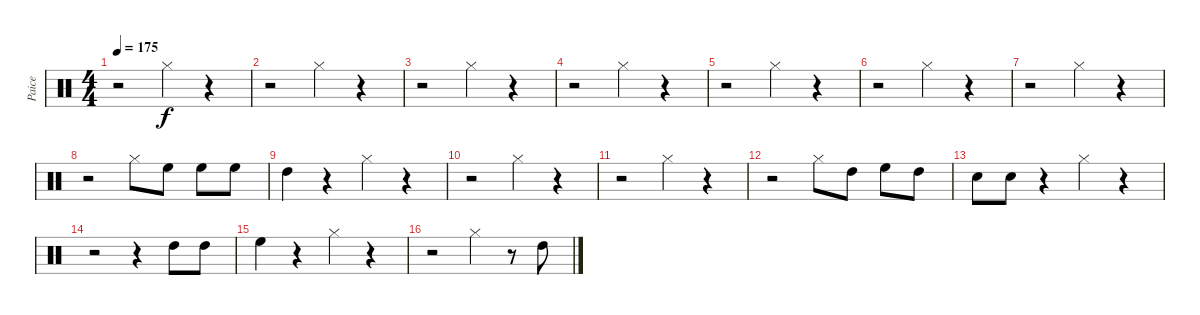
\track ("Paice" "Paice") {instrument percussion}
\staff {score}
\articulation defaults
\ts (4 4)
\tempo 175
\clef neutral
\ks c
r.2{dy f} "Hi-Hat (closed)".4 r.4 |
r.2 "Hi-Hat (closed)".4 r.4 |
r.2 "Hi-Hat (closed)".4 r.4 |
r.2 "Hi-Hat (closed)".4 r.4 |
r.2 "Hi-Hat (closed)".4 r.4 |
r.2 "Hi-Hat (closed)".4 r.4 |
r.2 "Hi-Hat (closed)".4 r.4 |
r.2 "Hi-Hat (closed)".8 "High Floor Tom (hit)".8 "High Floor Tom (hit)".8 "High Floor Tom (hit)".8 |
"High Tom (hit)".4 r.4 "Hi-Hat (closed)".4 r.4 |
r.2 "Hi-Hat (closed)".4 r.4 |
r.2 "Hi-Hat (closed)".4 r.4 |
r.2 "Hi-Hat (closed)".8 "High Tom (hit)".8 "High Floor Tom (hit)".8 "High Tom (hit)".8 |
"Electric Snare (hit)".8 "Electric Snare (hit)".8 r.4 "Hi-Hat (closed)".4 r.4 |
r.2 r.4 "High Tom (hit)".8 "High Tom (hit)".8 |
"High Floor Tom (hit)".4 r.4 "Hi-Hat (closed)".4 r.4 |
r.2 "Hi-Hat (closed)".4 r.8 "High Tom (hit)".8
